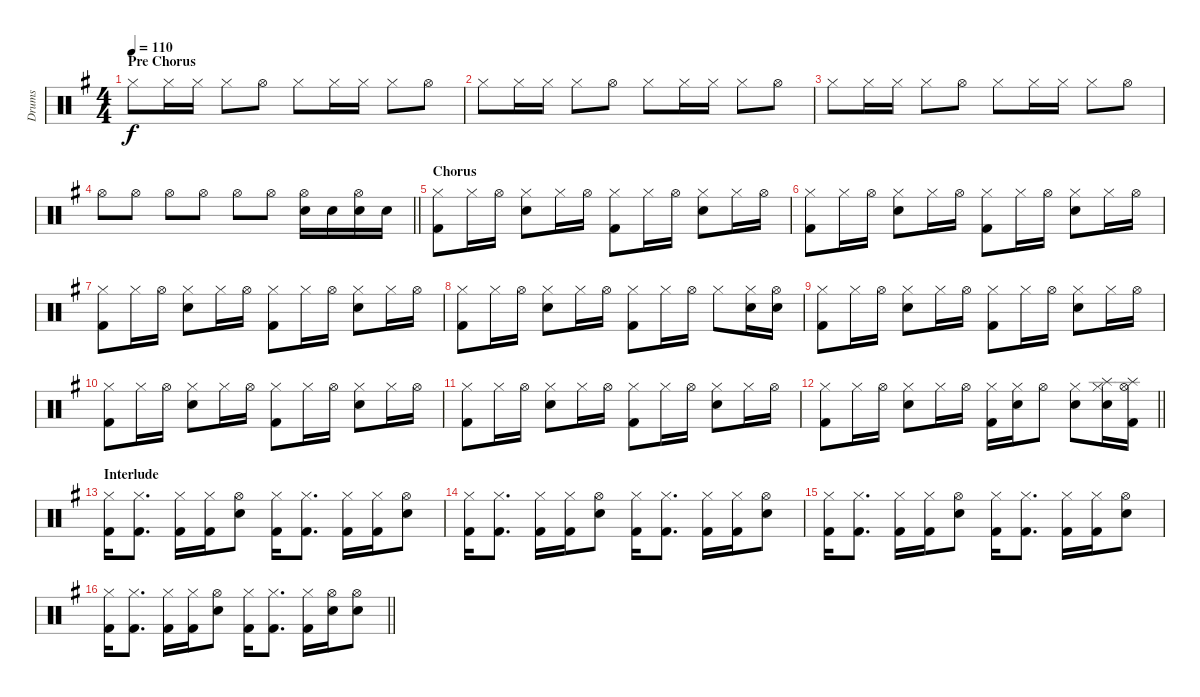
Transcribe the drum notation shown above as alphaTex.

\track ("Drums" "Drums") {instrument percussion}
\staff {score}
\articulation defaults
\ts (4 4)
\section ("" "Pre Chorus")
\tempo 110
\clef neutral
\ks g "Hi-Hat (closed)".8{dy f} "Hi-Hat (closed)".16 "Hi-Hat (closed)".16 "Hi-Hat (closed)".8 "Hi-Hat (open)".8 "Hi-Hat (closed)".8 "Hi-Hat (closed)".16 "Hi-Hat (closed)".16 "Hi-Hat (closed)".8 "Hi-Hat (open)".8
|
"Hi-Hat (closed)".8 "Hi-Hat (closed)".16 "Hi-Hat (closed)".16 "Hi-Hat (closed)".8 "Hi-Hat (open)".8 "Hi-Hat (closed)".8 "Hi-Hat (closed)".16 "Hi-Hat (closed)".16 "Hi-Hat (closed)".8 "Hi-Hat (open)".8 |
"Hi-Hat (closed)".8 "Hi-Hat (closed)".16 "Hi-Hat (closed)".16 "Hi-Hat (closed)".8 "Hi-Hat (open)".8 "Hi-Hat (closed)".8 "Hi-Hat (closed)".16 "Hi-Hat (closed)".16 "Hi-Hat (closed)".8 "Hi-Hat (open)".8 |
\barLineRight lightlight "Hi-Hat (open)".8 "Hi-Hat (open)".8 "Hi-Hat (open)".8 "Hi-Hat (open)".8 "Hi-Hat (open)".8 "Hi-Hat (open)".8
("Snare (hit) 2" "Hi-Hat (open)").16 "Snare (hit) 2".16 ("Snare (hit) 2" "Hi-Hat (open)").16 "Snare (hit) 2".16 |
\section ("" "Chorus")
("Kick (hit) 2" "Hi-Hat (closed)").8 "Hi-Hat (closed)".16 "Hi-Hat (open)".16 ("Snare (hit) 2" "Hi-Hat (closed)").8 "Hi-Hat (closed)".16 "Hi-Hat (open)".16 ("Kick (hit) 2" "Hi-Hat (closed)").8 "Hi-Hat (closed)".16 "Hi-Hat (open)".16 ("Snare (hit) 2" "Hi-Hat (closed)").8 "Hi-Hat (closed)".16 "Hi-Hat (open)".16 |
("Kick (hit) 2" "Hi-Hat (closed)").8 "Hi-Hat (closed)".16 "Hi-Hat (open)".16 ("Snare (hit) 2" "Hi-Hat (closed)").8 "Hi-Hat (closed)".16 "Hi-Hat (open)".16 ("Kick (hit) 2" "Hi-Hat (closed)").8 "Hi-Hat (closed)".16 "Hi-Hat (open)".16 ("Snare (hit) 2" "Hi-Hat (closed)").8 "Hi-Hat (closed)".16 "Hi-Hat (open)".16 |
("Kick (hit) 2" "Hi-Hat (closed)").8 "Hi-Hat (closed)".16 "Hi-Hat (open)".16 ("Snare (hit) 2" "Hi-Hat (closed)").8 "Hi-Hat (closed)".16 "Hi-Hat (open)".16 ("Kick (hit) 2" "Hi-Hat (closed)").8 "Hi-Hat (closed)".16 "Hi-Hat (open)".16 ("Snare (hit) 2" "Hi-Hat (closed)").8 "Hi-Hat (closed)".16 "Hi-Hat (open)".16 |
("Kick (hit) 2" "Hi-Hat (closed)").8 "Hi-Hat (closed)".16 "Hi-Hat (open)".16 ("Snare (hit) 2" "Hi-Hat (closed)").8 "Hi-Hat (closed)".16 "Hi-Hat (open)".16 ("Kick (hit) 2" "Hi-Hat (closed)").8 "Hi-Hat (closed)".16 "Hi-Hat (open)".16 "Hi-Hat (closed)".8 ("Hi-Hat (closed)" "Snare (hit) 2").16 ("Snare (hit) 2" "Hi-Hat (open)").16 |
("Kick (hit) 2" "Hi-Hat (closed)").8 "Hi-Hat (closed)".16 "Hi-Hat (open)".16 ("Snare (hit) 2" "Hi-Hat (closed)").8 "Hi-Hat (closed)".16 "Hi-Hat (open)".16 ("Kick (hit) 2" "Hi-Hat (closed)").8 "Hi-Hat (closed)".16 "Hi-Hat (open)".16 ("Snare (hit) 2" "Hi-Hat (closed)").8 "Hi-Hat (closed)".16 "Hi-Hat (open)".16 |
("Kick (hit) 2" "Hi-Hat (closed)").8 "Hi-Hat (closed)".16 "Hi-Hat (open)".16 ("Snare (hit) 2" "Hi-Hat (closed)").8 "Hi-Hat (closed)".16 "Hi-Hat (open)".16 ("Kick (hit) 2" "Hi-Hat (closed)").8 "Hi-Hat (closed)".16 "Hi-Hat (open)".16 ("Snare (hit) 2" "Hi-Hat (closed)").8 "Hi-Hat (closed)".16 "Hi-Hat (open)".16 |
("Kick (hit) 2" "Hi-Hat (closed)").8 "Hi-Hat (closed)".16 "Hi-Hat (open)".16 ("Snare (hit) 2" "Hi-Hat (closed)").8 "Hi-Hat (closed)".16 "Hi-Hat (open)".16 ("Kick (hit) 2" "Hi-Hat (closed)").8 "Hi-Hat (closed)".16 "Hi-Hat (open)".16 ("Snare (hit) 2" "Hi-Hat (closed)").8 "Hi-Hat (closed)".16 "Hi-Hat (open)".16 |
\barLineRight lightlight
("Kick (hit) 2" "Hi-Hat (closed)").8 "Hi-Hat (closed)".16 "Hi-Hat (open)".16 ("Snare (hit) 2" "Hi-Hat (closed)").8 "Hi-Hat (closed)".16 "Hi-Hat (open)".16 ("Kick (hit) 2" "Hi-Hat (closed)").16 ("Hi-Hat (closed)" "Snare (hit) 2").16 "Hi-Hat (open)".8 ("Snare (hit) 2" "Hi-Hat (closed)").8 ("Snare (hit) 2" "Hi-Hat (closed)" "Splash (hit)").16 ("Kick (hit) 2" "Splash (hit)" "Hi-Hat (open)").16 |
\section ("" "Interlude")
("Kick (hit) 2" "Hi-Hat (closed)").16 ("Kick (hit) 2" "Hi-Hat (closed)").8{d} ("Kick (hit) 2" "Hi-Hat (closed)").16 ("Kick (hit) 2" "Hi-Hat (closed)").16 ("Snare (hit) 2" "Hi-Hat (open)").8 ("Kick (hit) 2" "Hi-Hat (closed)").16 ("Kick (hit) 2" "Hi-Hat (closed)").8{d} ("Kick (hit) 2" "Hi-Hat (closed)").16 ("Kick (hit) 2" "Hi-Hat (closed)").16 ("Snare (hit) 2" "Hi-Hat (open)").8 |
("Kick (hit) 2" "Hi-Hat (closed)").16 ("Kick (hit) 2" "Hi-Hat (closed)").8{d} ("Kick (hit) 2" "Hi-Hat (closed)").16 ("Kick (hit) 2" "Hi-Hat (closed)").16 ("Snare (hit) 2" "Hi-Hat (open)").8 ("Kick (hit) 2" "Hi-Hat (closed)").16 ("Kick (hit) 2" "Hi-Hat (closed)").8{d} ("Kick (hit) 2" "Hi-Hat (closed)").16 ("Kick (hit) 2" "Hi-Hat (closed)").16 ("Snare (hit) 2" "Hi-Hat (open)").8 |
("Kick (hit) 2" "Hi-Hat (closed)").16 ("Kick (hit) 2" "Hi-Hat (closed)").8{d} ("Kick (hit) 2" "Hi-Hat (closed)").16 ("Kick (hit) 2" "Hi-Hat (closed)").16 ("Snare (hit) 2" "Hi-Hat (open)").8 ("Kick (hit) 2" "Hi-Hat (closed)").16 ("Kick (hit) 2" "Hi-Hat (closed)").8{d} ("Kick (hit) 2" "Hi-Hat (closed)").16 ("Kick (hit) 2" "Hi-Hat (closed)").16 ("Snare (hit) 2" "Hi-Hat (open)").8 |
\barLineRight lightlight
("Kick (hit) 2" "Hi-Hat (closed)").16 ("Kick (hit) 2" "Hi-Hat (closed)").8{d} ("Kick (hit) 2" "Hi-Hat (closed)").16 ("Kick (hit) 2" "Hi-Hat (closed)").16 ("Snare (hit) 2" "Hi-Hat (open)").8 ("Kick (hit) 2" "Hi-Hat (closed)").16 ("Kick (hit) 2" "Hi-Hat (closed)").8{d} ("Kick (hit) 2" "Hi-Hat (closed)").16 ("Snare (hit) 2" "Hi-Hat (open)").16 ("Snare (hit) 2" "Hi-Hat (open)").8
